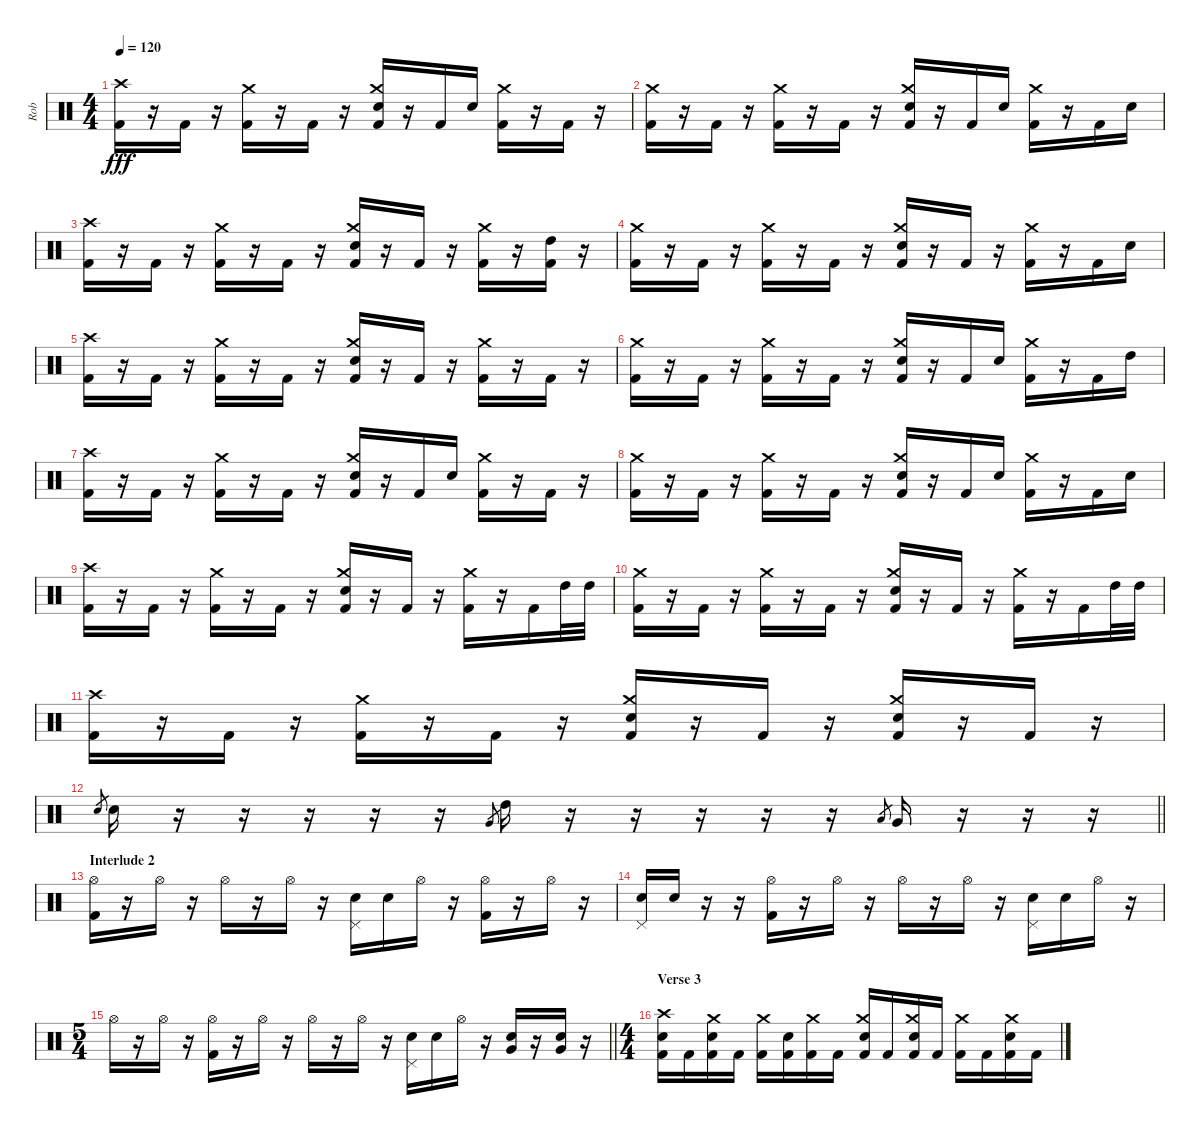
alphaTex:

\track ("Rob" "Rob") {instrument percussion}
\staff {score}
\articulation defaults
\ts (4 4)
\tempo 120
\clef neutral
\ks c
("Crash high (hit)" "Kick (hit) 2").16{dy fff} r.16 "Kick (hit) 2".16 r.16 ("Crash medium (hit)" "Kick (hit) 2").16 r.16 "Kick (hit) 2".16 r.16 ("Crash medium (hit)" "Electric Snare (hit)" "Kick (hit) 2").16 r.16 "Kick (hit) 2".16 "Electric Snare (hit)".16 ("Crash medium (hit)" "Kick (hit) 2").16 r.16 "Kick (hit) 2".16 r.16 |
("Crash medium (hit)" "Kick (hit) 2").16 r.16 "Kick (hit) 2".16 r.16 ("Crash medium (hit)" "Kick (hit) 2").16 r.16 "Kick (hit) 2".16 r.16 ("Crash medium (hit)" "Electric Snare (hit)" "Kick (hit) 2").16 r.16 "Kick (hit) 2".16 "Electric Snare (hit)".16 ("Crash medium (hit)" "Kick (hit) 2").16 r.16 "Kick (hit) 2".16 "Electric Snare (hit)".16 |
("Crash high (hit)" "Kick (hit) 2").16 r.16 "Kick (hit) 2".16 r.16 ("Crash medium (hit)" "Kick (hit) 2").16 r.16 "Kick (hit) 2".16 r.16 ("Crash medium (hit)" "Electric Snare (hit)" "Kick (hit) 2").16 r.16 "Kick (hit) 2".16 r.16 ("Crash medium (hit)" "Kick (hit) 2").16 r.16 ("High Tom (hit)" "Kick (hit) 2").16 r.16 |
("Crash medium (hit)" "Kick (hit) 2").16 r.16 "Kick (hit) 2".16 r.16 ("Crash medium (hit)" "Kick (hit) 2").16 r.16 "Kick (hit) 2".16 r.16 ("Crash medium (hit)" "Electric Snare (hit)" "Kick (hit) 2").16 r.16 "Kick (hit) 2".16 r.16 ("Crash medium (hit)" "Kick (hit) 2").16 r.16 "Kick (hit) 2".16 "Electric Snare (hit)".16 |
("Crash high (hit)" "Kick (hit) 2").16 r.16 "Kick (hit) 2".16 r.16 ("Crash medium (hit)" "Kick (hit) 2").16 r.16 "Kick (hit) 2".16 r.16 ("Crash medium (hit)" "Electric Snare (hit)" "Kick (hit) 2").16 r.16 "Kick (hit) 2".16 r.16 ("Crash medium (hit)" "Kick (hit) 2").16 r.16 "Kick (hit) 2".16 r.16 |
("Crash medium (hit)" "Kick (hit) 2").16 r.16 "Kick (hit) 2".16 r.16 ("Crash medium (hit)" "Kick (hit) 2").16 r.16 "Kick (hit) 2".16 r.16 ("Crash medium (hit)" "Electric Snare (hit)" "Kick (hit) 2").16 r.16 "Kick (hit) 2".16 "Electric Snare (hit)".16 ("Crash medium (hit)" "Kick (hit) 2").16 r.16 "Kick (hit) 2".16 "High Tom (hit)".16 |
("Crash high (hit)" "Kick (hit) 2").16 r.16 "Kick (hit) 2".16 r.16 ("Crash medium (hit)" "Kick (hit) 2").16 r.16 "Kick (hit) 2".16 r.16 ("Crash medium (hit)" "Electric Snare (hit)" "Kick (hit) 2").16 r.16 "Kick (hit) 2".16 "Electric Snare (hit)".16 ("Crash medium (hit)" "Kick (hit) 2").16 r.16 "Kick (hit) 2".16 r.16 |
("Crash medium (hit)" "Kick (hit) 2").16 r.16 "Kick (hit) 2".16 r.16 ("Crash medium (hit)" "Kick (hit) 2").16 r.16 "Kick (hit) 2".16 r.16 ("Crash medium (hit)" "Electric Snare (hit)" "Kick (hit) 2").16 r.16 "Kick (hit) 2".16 "Electric Snare (hit)".16 ("Crash medium (hit)" "Kick (hit) 2").16 r.16 "Kick (hit) 2".16 "Electric Snare (hit)".16 |
("Crash high (hit)" "Kick (hit) 2").16 r.16 "Kick (hit) 2".16 r.16 ("Crash medium (hit)" "Kick (hit) 2").16 r.16 "Kick (hit) 2".16 r.16 ("Crash medium (hit)" "Electric Snare (hit)" "Kick (hit) 2").16 r.16 "Kick (hit) 2".16 r.16 ("Crash medium (hit)" "Kick (hit) 2").16 r.16 "Kick (hit) 2".16 "High Tom (hit)".32 "High Tom (hit)".32 |
("Crash medium (hit)" "Kick (hit) 2").16 r.16 "Kick (hit) 2".16 r.16 ("Crash medium (hit)" "Kick (hit) 2").16 r.16 "Kick (hit) 2".16 r.16 ("Crash medium (hit)" "Electric Snare (hit)" "Kick (hit) 2").16 r.16 "Kick (hit) 2".16 r.16 ("Crash medium (hit)" "Kick (hit) 2").16 r.16 "Kick (hit) 2".16 "High Tom (hit)".32 "High Tom (hit)".32 |
("Crash high (hit)" "Kick (hit) 2").16 r.16 "Kick (hit) 2".16 r.16 ("Crash medium (hit)" "Kick (hit) 2").16 r.16 "Kick (hit) 2".16 r.16 ("Crash medium (hit)" "Electric Snare (hit)" "Kick (hit) 2").16 r.16 "Kick (hit) 2".16 r.16 ("Crash medium (hit)" "Electric Snare (hit)" "Kick (hit) 2").16 r.16 "Kick (hit) 2".16 r.16 |
\barLineRight lightlight "Electric Snare (hit)".8{gr} "Electric Snare (hit)".16
r.16 r.16 r.16 r.16 r.16 "Very Low Tom (hit)".8{gr} "High Tom (hit)".16 r.16 r.16 r.16 r.16 r.16 "Low Floor Tom (hit)".8{gr} "Very Low Tom (hit)".16 r.16 r.16 r.16 |
\section ("" "Interlude 2")
("Hi-Hat (open)" "Kick (hit) 2").16 r.16 "Hi-Hat (open)".16 r.16 "Hi-Hat (open)".16 r.16 "Hi-Hat (open)".16 r.16 ("Pedal Hi-Hat (hit)" "Electric Snare (hit)").16 "Electric Snare (hit)".16 "Hi-Hat (open)".16 r.16 ("Hi-Hat (open)" "Kick (hit) 2").16 r.16 "Hi-Hat (open)".16 r.16 |
("Pedal Hi-Hat (hit)" "Electric Snare (hit)").16 "Electric Snare (hit)".16 r.16 r.16 ("Hi-Hat (open)" "Kick (hit) 2").16 r.16 "Hi-Hat (open)".16 r.16 "Hi-Hat (open)".16 r.16 "Hi-Hat (open)".16 r.16 ("Pedal Hi-Hat (hit)" "Electric Snare (hit)").16 "Electric Snare (hit)".16 "Hi-Hat (open)".16 r.16 |
\ts (5 4)
\barLineRight lightlight "Hi-Hat (open)".16
r.16 "Hi-Hat (open)".16 r.16 ("Hi-Hat (open)" "Kick (hit) 2").16 r.16 "Hi-Hat (open)".16 r.16 "Hi-Hat (open)".16 r.16 "Hi-Hat (open)".16 r.16 ("Pedal Hi-Hat (hit)" "Electric Snare (hit)").16 "Electric Snare (hit)".16 "Hi-Hat (open)".16 r.16 ("Electric Snare (hit)" "Very Low Tom (hit)").16 r.16 ("Electric Snare (hit)" "Very Low Tom (hit)").16 r.16 |
\ts (4 4)
\section ("" "Verse 3")
("Crash high (hit)" "Electric Snare (hit)" "Kick (hit) 2").16 "Kick (hit) 2".16 ("Crash medium (hit)" "Electric Snare (hit)" "Kick (hit) 2").16 "Kick (hit) 2".16 ("Crash medium (hit)" "Kick (hit) 2").16 ("Electric Snare (hit)" "Kick (hit) 2").16 ("Crash medium (hit)" "Kick (hit) 2").16 "Kick (hit) 2".16 ("Crash medium (hit)" "Electric Snare (hit)" "Kick (hit) 2").16 "Kick (hit) 2".16 ("Crash medium (hit)" "Electric Snare (hit)" "Kick (hit) 2").16 "Kick (hit) 2".16 ("Crash medium (hit)" "Kick (hit) 2").16 "Kick (hit) 2".16 ("Crash medium (hit)" "Electric Snare (hit)" "Kick (hit) 2").16 "Kick (hit) 2".16
